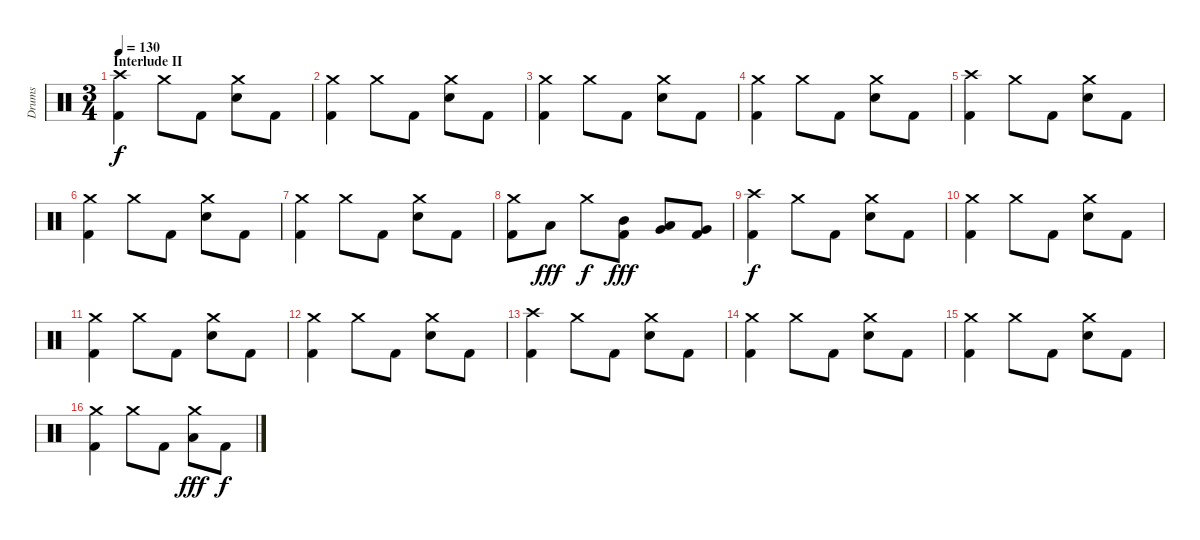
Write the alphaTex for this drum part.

\track ("Drums" "Drums") {instrument percussion}
\staff {score}
\articulation defaults
\ts (3 4)
\section ("" "Interlude II")
\tempo 130
\clef neutral
\ks c
("Kick (hit) 2" "Crash high (hit)").4{dy f} "Crash medium (hit)".8 "Kick (hit) 2".8 ("Electric Snare (hit)" "Crash medium (hit)").8 "Kick (hit) 2".8 |
("Kick (hit) 2" "Crash medium (hit)").4 "Crash medium (hit)".8 "Kick (hit) 2".8 ("Electric Snare (hit)" "Crash medium (hit)").8 "Kick (hit) 2".8 |
("Kick (hit) 2" "Crash medium (hit)").4 "Crash medium (hit)".8 "Kick (hit) 2".8 ("Electric Snare (hit)" "Crash medium (hit)").8 "Kick (hit) 2".8 |
("Kick (hit) 2" "Crash medium (hit)").4 "Crash medium (hit)".8 "Kick (hit) 2".8 ("Electric Snare (hit)" "Crash medium (hit)").8 "Kick (hit) 2".8 |
("Kick (hit) 2" "Crash high (hit)").4 "Crash medium (hit)".8 "Kick (hit) 2".8 ("Electric Snare (hit)" "Crash medium (hit)").8 "Kick (hit) 2".8 |
("Kick (hit) 2" "Crash medium (hit)").4 "Crash medium (hit)".8 "Kick (hit) 2".8 ("Electric Snare (hit)" "Crash medium (hit)").8 "Kick (hit) 2".8 |
("Kick (hit) 2" "Crash medium (hit)").4 "Crash medium (hit)".8 "Kick (hit) 2".8 ("Electric Snare (hit)" "Crash medium (hit)").8 "Kick (hit) 2".8 |
("Kick (hit) 2" "Crash medium (hit)").8 "Low Tom (hit)".8{dy fff} "Crash medium (hit)".8{dy f} ("Kick (hit) 2" "Mid Tom (hit)").8{dy fff} ("Low Tom (hit)" "Very Low Tom (hit)").8 ("Kick (hit) 2" "Very Low Tom (hit)").8 |
("Kick (hit) 2" "Crash high (hit)").4{dy f} "Crash medium (hit)".8 "Kick (hit) 2".8 ("Electric Snare (hit)" "Crash medium (hit)").8 "Kick (hit) 2".8 |
("Kick (hit) 2" "Crash medium (hit)").4 "Crash medium (hit)".8 "Kick (hit) 2".8 ("Electric Snare (hit)" "Crash medium (hit)").8 "Kick (hit) 2".8 |
("Kick (hit) 2" "Crash medium (hit)").4 "Crash medium (hit)".8 "Kick (hit) 2".8 ("Electric Snare (hit)" "Crash medium (hit)").8 "Kick (hit) 2".8 |
("Kick (hit) 2" "Crash medium (hit)").4 "Crash medium (hit)".8 "Kick (hit) 2".8 ("Electric Snare (hit)" "Crash medium (hit)").8 "Kick (hit) 2".8 |
("Kick (hit) 2" "Crash high (hit)").4 "Crash medium (hit)".8 "Kick (hit) 2".8 ("Electric Snare (hit)" "Crash medium (hit)").8 "Kick (hit) 2".8 |
("Kick (hit) 2" "Crash medium (hit)").4 "Crash medium (hit)".8 "Kick (hit) 2".8 ("Electric Snare (hit)" "Crash medium (hit)").8 "Kick (hit) 2".8 |
("Kick (hit) 2" "Crash medium (hit)").4 "Crash medium (hit)".8 "Kick (hit) 2".8 ("Electric Snare (hit)" "Crash medium (hit)").8 "Kick (hit) 2".8 |
("Kick (hit) 2" "Crash medium (hit)").4 "Crash medium (hit)".8 "Kick (hit) 2".8 ("Low Tom (hit)" "Crash medium (hit)").8{dy fff} "Kick (hit) 2".8{dy f}
